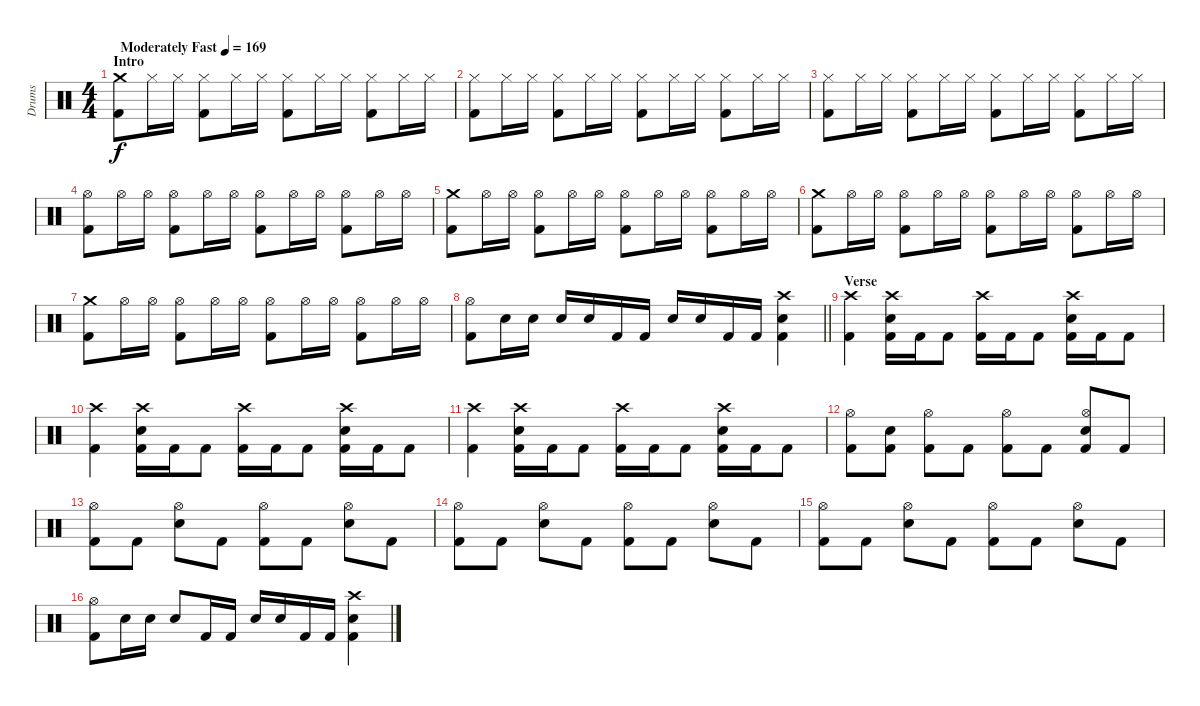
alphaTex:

\track ("Drums" "Drums") {instrument percussion}
\staff {score}
\articulation defaults
\ts (4 4)
\section ("" "Intro")
\tempo (169 "Moderately Fast")
\clef neutral
\ks c
("Crash medium (hit)" "Kick (hit) 2").8{dy f} "Hi-Hat (closed)".16 "Hi-Hat (closed)".16 ("Hi-Hat (closed)" "Kick (hit) 2").8 "Hi-Hat (closed)".16 "Hi-Hat (closed)".16 ("Hi-Hat (closed)" "Kick (hit) 2").8 "Hi-Hat (closed)".16 "Hi-Hat (closed)".16 ("Hi-Hat (closed)" "Kick (hit) 2").8 "Hi-Hat (closed)".16 "Hi-Hat (closed)".16 |
("Hi-Hat (closed)" "Kick (hit) 2").8 "Hi-Hat (closed)".16 "Hi-Hat (closed)".16 ("Hi-Hat (closed)" "Kick (hit) 2").8 "Hi-Hat (closed)".16 "Hi-Hat (closed)".16 ("Hi-Hat (closed)" "Kick (hit) 2").8 "Hi-Hat (closed)".16 "Hi-Hat (closed)".16 ("Hi-Hat (closed)" "Kick (hit) 2").8 "Hi-Hat (closed)".16 "Hi-Hat (closed)".16 |
("Hi-Hat (closed)" "Kick (hit) 2").8 "Hi-Hat (closed)".16 "Hi-Hat (closed)".16 ("Hi-Hat (closed)" "Kick (hit) 2").8 "Hi-Hat (closed)".16 "Hi-Hat (closed)".16 ("Hi-Hat (closed)" "Kick (hit) 2").8 "Hi-Hat (closed)".16 "Hi-Hat (closed)".16 ("Hi-Hat (closed)" "Kick (hit) 2").8 "Hi-Hat (closed)".16 "Hi-Hat (closed)".16 |
("Hi-Hat (open)" "Kick (hit) 2").8 "Hi-Hat (open)".16 "Hi-Hat (open)".16 ("Hi-Hat (open)" "Kick (hit) 2").8 "Hi-Hat (open)".16 "Hi-Hat (open)".16 ("Hi-Hat (open)" "Kick (hit) 2").8 "Hi-Hat (open)".16 "Hi-Hat (open)".16 ("Hi-Hat (open)" "Kick (hit) 2").8 "Hi-Hat (open)".16 "Hi-Hat (open)".16 |
("Crash medium (hit)" "Kick (hit) 2").8 "Hi-Hat (open)".16 "Hi-Hat (open)".16 ("Hi-Hat (open)" "Kick (hit) 2").8 "Hi-Hat (open)".16 "Hi-Hat (open)".16 ("Hi-Hat (open)" "Kick (hit) 2").8 "Hi-Hat (open)".16 "Hi-Hat (open)".16 ("Hi-Hat (open)" "Kick (hit) 2").8 "Hi-Hat (open)".16 "Hi-Hat (open)".16 |
("Crash medium (hit)" "Kick (hit) 2").8 "Hi-Hat (open)".16 "Hi-Hat (open)".16 ("Hi-Hat (open)" "Kick (hit) 2").8 "Hi-Hat (open)".16 "Hi-Hat (open)".16 ("Hi-Hat (open)" "Kick (hit) 2").8 "Hi-Hat (open)".16 "Hi-Hat (open)".16 ("Hi-Hat (open)" "Kick (hit) 2").8 "Hi-Hat (open)".16 "Hi-Hat (open)".16 |
("Crash medium (hit)" "Kick (hit) 2").8 "Hi-Hat (open)".16 "Hi-Hat (open)".16 ("Hi-Hat (open)" "Kick (hit) 2").8 "Hi-Hat (open)".16 "Hi-Hat (open)".16 ("Hi-Hat (open)" "Kick (hit) 2").8 "Hi-Hat (open)".16 "Hi-Hat (open)".16 ("Hi-Hat (open)" "Kick (hit) 2").8 "Hi-Hat (open)".16 "Hi-Hat (open)".16 |
\barLineRight lightlight
("Hi-Hat (open)" "Kick (hit) 2").8 "Electric Snare (hit)".16 "Electric Snare (hit)".16 "Electric Snare (hit)".16 "Electric Snare (hit)".16 "Kick (hit) 2".16 "Kick (hit) 2".16 "Electric Snare (hit)".16 "Electric Snare (hit)".16 "Kick (hit) 2".16 "Kick (hit) 2".16 ("Crash high (hit)" "Electric Snare (hit)" "Kick (hit) 2").4 |
\section ("" "Verse")
("Crash high (hit)" "Kick (hit) 2").4 ("Crash high (hit)" "Electric Snare (hit)" "Kick (hit) 2").16 "Kick (hit) 2".16 "Kick (hit) 2".8 ("Crash high (hit)" "Kick (hit) 2").16 "Kick (hit) 2".16 "Kick (hit) 2".8 ("Crash high (hit)" "Electric Snare (hit)" "Kick (hit) 2").16 "Kick (hit) 2".16 "Kick (hit) 2".8 |
("Crash high (hit)" "Kick (hit) 2").4 ("Crash high (hit)" "Electric Snare (hit)" "Kick (hit) 2").16 "Kick (hit) 2".16 "Kick (hit) 2".8 ("Crash high (hit)" "Kick (hit) 2").16 "Kick (hit) 2".16 "Kick (hit) 2".8 ("Crash high (hit)" "Electric Snare (hit)" "Kick (hit) 2").16 "Kick (hit) 2".16 "Kick (hit) 2".8 |
("Crash high (hit)" "Kick (hit) 2").4 ("Crash high (hit)" "Electric Snare (hit)" "Kick (hit) 2").16 "Kick (hit) 2".16 "Kick (hit) 2".8 ("Crash high (hit)" "Kick (hit) 2").16 "Kick (hit) 2".16 "Kick (hit) 2".8 ("Crash high (hit)" "Electric Snare (hit)" "Kick (hit) 2").16 "Kick (hit) 2".16 "Kick (hit) 2".8 |
("Hi-Hat (open)" "Kick (hit) 2").8 ("Electric Snare (hit)" "Kick (hit) 2").8 ("Hi-Hat (open)" "Kick (hit) 2").8 "Kick (hit) 2".8 ("Hi-Hat (open)" "Kick (hit) 2").8 "Kick (hit) 2".8 ("Hi-Hat (open)" "Electric Snare (hit)" "Kick (hit) 2").8 "Kick (hit) 2".8 |
("Hi-Hat (open)" "Kick (hit) 2").8 "Kick (hit) 2".8 ("Hi-Hat (open)" "Electric Snare (hit)").8 "Kick (hit) 2".8 ("Hi-Hat (open)" "Kick (hit) 2").8 "Kick (hit) 2".8 ("Hi-Hat (open)" "Electric Snare (hit)").8 "Kick (hit) 2".8 |
("Hi-Hat (open)" "Kick (hit) 2").8 "Kick (hit) 2".8 ("Hi-Hat (open)" "Electric Snare (hit)").8 "Kick (hit) 2".8 ("Hi-Hat (open)" "Kick (hit) 2").8 "Kick (hit) 2".8 ("Hi-Hat (open)" "Electric Snare (hit)").8 "Kick (hit) 2".8 |
("Hi-Hat (open)" "Kick (hit) 2").8 "Kick (hit) 2".8 ("Hi-Hat (open)" "Electric Snare (hit)").8 "Kick (hit) 2".8 ("Hi-Hat (open)" "Kick (hit) 2").8 "Kick (hit) 2".8 ("Hi-Hat (open)" "Electric Snare (hit)").8 "Kick (hit) 2".8 |
("Hi-Hat (open)" "Kick (hit) 2").8 "Electric Snare (hit)".16 "Electric Snare (hit)".16 "Electric Snare (hit)".8 "Kick (hit) 2".16 "Kick (hit) 2".16 "Electric Snare (hit)".16 "Electric Snare (hit)".16 "Kick (hit) 2".16 "Kick (hit) 2".16 ("Crash high (hit)" "Electric Snare (hit)" "Kick (hit) 2").4
